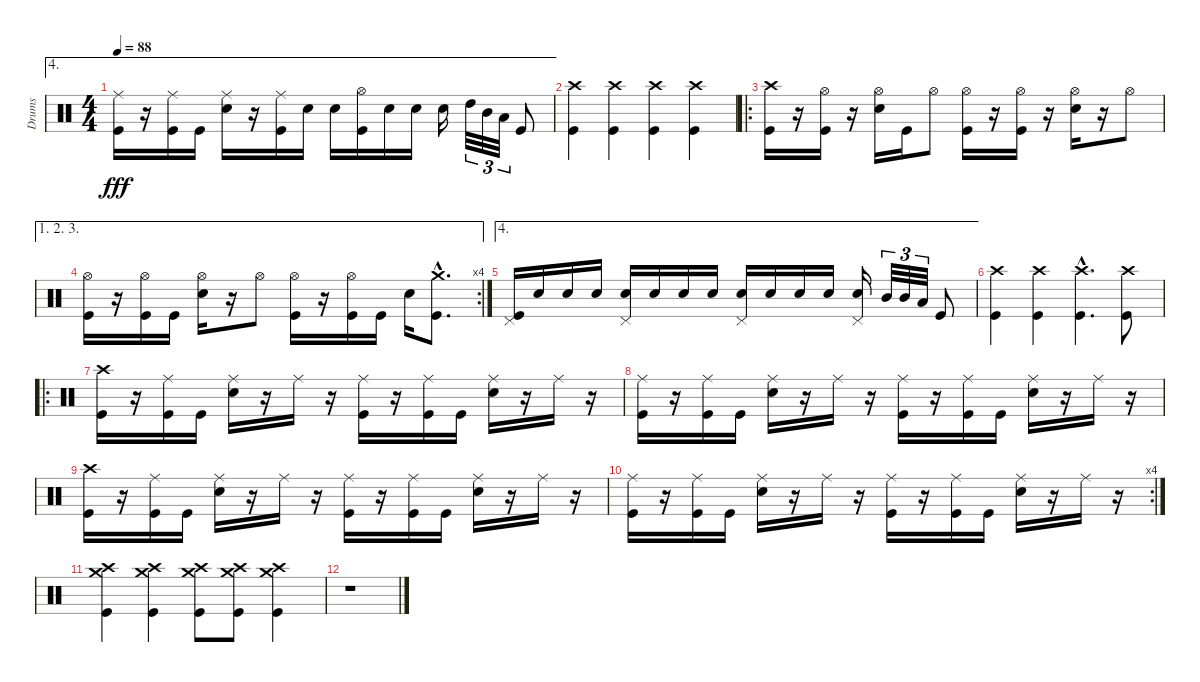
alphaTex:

\track ("Drums" "Drums") {instrument percussion}
\staff {score}
\articulation defaults
\ae 4
\ts (4 4)
\tempo 88
\clef neutral
\ks c
("Ride (middle)" "Kick (hit)").16{dy fff} r.16 ("Ride (middle)" "Kick (hit)").16 "Kick (hit)".16 ("Ride (middle)" "Electric Snare (hit)").16 r.16 ("Ride (middle)" "Kick (hit)").16 "Electric Snare (hit)".16 "Electric Snare (hit)".16 ("Hi-Hat (open)" "Kick (hit)").16 "Electric Snare (hit)".16 "Electric Snare (hit)".16 "Electric Snare (hit)".16 "High Tom (hit)".32{tu (3 2)} "Mid Tom (hit)".32{tu (3 2)} "Low Tom (hit)".32{tu (3 2)} "Kick (hit)".8 |
("Crash high (hit)" "Kick (hit)").4 ("Crash high (hit)" "Kick (hit)").4 ("Crash high (hit)" "Kick (hit)").4 ("Crash high (hit)" "Kick (hit)").4 |
\ro
("Crash high (hit)" "Kick (hit)").16 r.16 ("Hi-Hat (open)" "Kick (hit)").16 r.16 ("Hi-Hat (open)" "Electric Snare (hit)").16 "Kick (hit)".16 "Hi-Hat (open)".8 ("Hi-Hat (open)" "Kick (hit)").16 r.16 ("Hi-Hat (open)" "Kick (hit)").16 r.16 ("Hi-Hat (open)" "Electric Snare (hit)").16 r.16 "Hi-Hat (open)".8 |
\ae (1 2 3)
\rc 4
("Hi-Hat (open)" "Kick (hit)").16 r.16 ("Hi-Hat (open)" "Kick (hit)").16 "Kick (hit)".16 ("Hi-Hat (open)" "Electric Snare (hit)").16 r.16 "Hi-Hat (open)".8 ("Hi-Hat (open)" "Kick (hit)").16 r.16 ("Hi-Hat (open)" "Kick (hit)").16 "Kick (hit)".16 "Electric Snare (hit)".16 ("Crash medium (hit)"{hac} "Kick (hit)"{hac}).8{d} |
\ae 4
("Pedal Hi-Hat (hit)" "Kick (hit)").16 "Electric Snare (hit)".16 "Electric Snare (hit)".16 "Electric Snare (hit)".16 ("Pedal Hi-Hat (hit)" "Electric Snare (hit)").16 "Electric Snare (hit)".16 "Electric Snare (hit)".16 "Electric Snare (hit)".16 ("Pedal Hi-Hat (hit)" "Electric Snare (hit)").16 "Electric Snare (hit)".16 "Electric Snare (hit)".16 "Electric Snare (hit)".16 ("Pedal Hi-Hat (hit)" "Electric Snare (hit)").16 "Mid Tom (hit)".32{tu (3 2)} "Mid Tom (hit)".32{tu (3 2)} "Low Tom (hit)".32{tu (3 2)} "Kick (hit)".8 |
("Crash high (hit)" "Kick (hit)").4 ("Crash high (hit)" "Kick (hit)").4 ("Crash high (hit)"{hac} "Kick (hit)"{hac}).4{d} ("Crash high (hit)" "Kick (hit)").8 |
\ro
("Crash high (hit)" "Kick (hit)").16 r.16 ("Ride (middle)" "Kick (hit)").16 "Kick (hit)".16 ("Ride (middle)" "Electric Snare (hit)").16 r.16 "Ride (middle)".16 r.16 ("Ride (middle)" "Kick (hit)").16 r.16 ("Ride (middle)" "Kick (hit)").16 "Kick (hit)".16 ("Ride (middle)" "Electric Snare (hit)").16 r.16 "Ride (middle)".16 r.16 |
("Ride (middle)" "Kick (hit)").16 r.16 ("Ride (middle)" "Kick (hit)").16 "Kick (hit)".16 ("Ride (middle)" "Electric Snare (hit)").16 r.16 "Ride (middle)".16 r.16 ("Ride (middle)" "Kick (hit)").16 r.16 ("Ride (middle)" "Kick (hit)").16 "Kick (hit)".16 ("Ride (middle)" "Electric Snare (hit)").16 r.16 "Ride (middle)".16 r.16 |
("Crash high (hit)" "Kick (hit)").16 r.16 ("Ride (middle)" "Kick (hit)").16 "Kick (hit)".16 ("Ride (middle)" "Electric Snare (hit)").16 r.16 "Ride (middle)".16 r.16 ("Ride (middle)" "Kick (hit)").16 r.16 ("Ride (middle)" "Kick (hit)").16 "Kick (hit)".16 ("Ride (middle)" "Electric Snare (hit)").16 r.16 "Ride (middle)".16 r.16 |
\rc 4
("Ride (middle)" "Kick (hit)").16 r.16 ("Ride (middle)" "Kick (hit)").16 "Kick (hit)".16 ("Ride (middle)" "Electric Snare (hit)").16 r.16 "Ride (middle)".16 r.16 ("Ride (middle)" "Kick (hit)").16 r.16 ("Ride (middle)" "Kick (hit)").16 "Kick (hit)".16 ("Ride (middle)" "Electric Snare (hit)").16 r.16 "Ride (middle)".16 r.16 |
("Crash medium (hit)" "Crash high (hit)" "Kick (hit)").4 ("Crash medium (hit)" "Crash high (hit)" "Kick (hit)").4 ("Crash medium (hit)" "Crash high (hit)" "Kick (hit)").8 ("Crash medium (hit)" "Crash high (hit)" "Kick (hit)").8 ("Crash medium (hit)" "Crash high (hit)" "Kick (hit)").4 |
r.1
